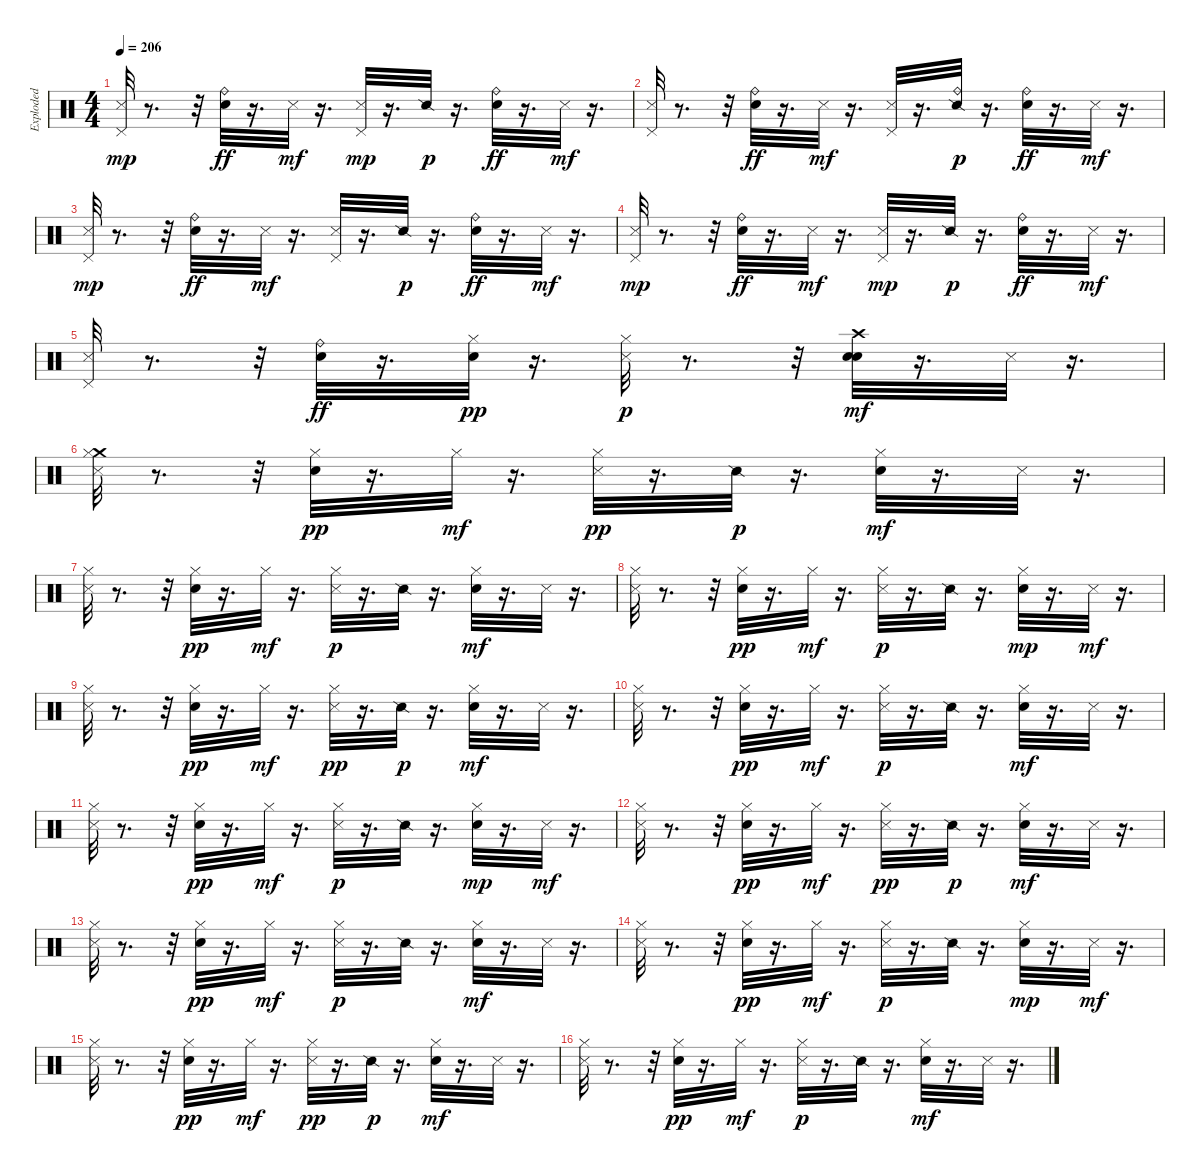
\track ("Exploded" "Exploded") {instrument percussion}
\staff {score}
\articulation defaults
\ts (4 4)
\tempo 206
\clef neutral
\ks c
("Metronome (hit)" "Pedal Hi-Hat (hit)").32{dy mp} r.8{d} r.32 ("Electric Snare (hit)" "Ride (bell)").32{dy ff} r.16{d} "Metronome (hit)".32{dy mf} r.16{d} ("Metronome (hit)" "Pedal Hi-Hat (hit)").32{dy mp} r.16{d} "Snare (side stick) 2".32{dy p} r.16{d} ("Electric Snare (hit)" "Ride (bell)").32{dy ff} r.16{d} "Metronome (hit)".32{dy mf} r.16{d} |
("Metronome (hit)" "Pedal Hi-Hat (hit)").32 r.8{d} r.32 ("Electric Snare (hit)" "Ride (bell)").32{dy ff} r.16{d} "Metronome (hit)".32{dy mf} r.16{d} ("Metronome (hit)" "Pedal Hi-Hat (hit)").32 r.16{d} ("Snare (side stick) 2" "Ride (bell)").32{dy p} r.16{d} ("Electric Snare (hit)" "Ride (bell)").32{dy ff} r.16{d} "Metronome (hit)".32{dy mf} r.16{d} |
("Metronome (hit)" "Pedal Hi-Hat (hit)").32{dy mp} r.8{d} r.32 ("Electric Snare (hit)" "Ride (bell)").32{dy ff} r.16{d} "Metronome (hit)".32{dy mf} r.16{d} ("Metronome (hit)" "Pedal Hi-Hat (hit)").32 r.16{d} "Snare (side stick) 2".32{dy p} r.16{d} ("Electric Snare (hit)" "Ride (bell)").32{dy ff} r.16{d} "Metronome (hit)".32{dy mf} r.16{d} |
("Metronome (hit)" "Pedal Hi-Hat (hit)").32{dy mp} r.8{d} r.32 ("Electric Snare (hit)" "Ride (bell)").32{dy ff} r.16{d} "Metronome (hit)".32{dy mf} r.16{d} ("Metronome (hit)" "Pedal Hi-Hat (hit)").32{dy mp} r.16{d} "Snare (side stick) 2".32{dy p} r.16{d} ("Electric Snare (hit)" "Ride (bell)").32{dy ff} r.16{d} "Metronome (hit)".32{dy mf} r.16{d} |
("Metronome (hit)" "Pedal Hi-Hat (hit)").32 r.8{d} r.32 ("Electric Snare (hit)" "Ride (bell)").32{dy ff} r.16{d} ("Electric Snare (hit)" "Hi-Hat (closed)").32{dy pp} r.16{d} ("Metronome (hit)" "Hi-Hat (closed)").32{dy p} r.8{d} r.32 ("Metronome (bell)" "Electric Snare (hit)" "Crash high (hit)").32{dy mf} r.16{d} "Metronome (hit)".32 r.16{d} |
("Crash medium (hit)" "Metronome (hit)" "Hi-Hat (closed)").32 r.8{d} r.32 ("Electric Snare (hit)" "Hi-Hat (closed)").32{dy pp} r.16{d} "Hi-Hat (closed)".32{dy mf} r.16{d} ("Metronome (hit)" "Hi-Hat (closed)").32{dy pp} r.16{d} "Snare (side stick) 2".32{dy p} r.16{d} ("Electric Snare (hit)" "Hi-Hat (closed)").32{dy mf} r.16{d} "Metronome (hit)".32 r.16{d} |
("Metronome (hit)" "Hi-Hat (closed)").32 r.8{d} r.32 ("Electric Snare (hit)" "Hi-Hat (closed)").32{dy pp} r.16{d} "Hi-Hat (closed)".32{dy mf} r.16{d} ("Metronome (hit)" "Hi-Hat (closed)").32{dy p} r.16{d} "Snare (side stick) 2".32 r.16{d} ("Electric Snare (hit)" "Hi-Hat (closed)").32{dy mf} r.16{d} "Metronome (hit)".32 r.16{d} |
("Metronome (hit)" "Hi-Hat (closed)").32 r.8{d} r.32 ("Electric Snare (hit)" "Hi-Hat (closed)").32{dy pp} r.16{d} "Hi-Hat (closed)".32{dy mf} r.16{d} ("Metronome (hit)" "Hi-Hat (closed)").32{dy p} r.16{d} "Snare (side stick) 2".32 r.16{d} ("Electric Snare (hit)" "Hi-Hat (closed)").32{dy mp} r.16{d} "Metronome (hit)".32{dy mf} r.16{d} |
("Metronome (hit)" "Hi-Hat (closed)").32 r.8{d} r.32 ("Electric Snare (hit)" "Hi-Hat (closed)").32{dy pp} r.16{d} "Hi-Hat (closed)".32{dy mf} r.16{d} ("Metronome (hit)" "Hi-Hat (closed)").32{dy pp} r.16{d} "Snare (side stick) 2".32{dy p} r.16{d} ("Electric Snare (hit)" "Hi-Hat (closed)").32{dy mf} r.16{d} "Metronome (hit)".32 r.16{d} |
("Metronome (hit)" "Hi-Hat (closed)").32 r.8{d} r.32 ("Electric Snare (hit)" "Hi-Hat (closed)").32{dy pp} r.16{d} "Hi-Hat (closed)".32{dy mf} r.16{d} ("Metronome (hit)" "Hi-Hat (closed)").32{dy p} r.16{d} "Snare (side stick) 2".32 r.16{d} ("Electric Snare (hit)" "Hi-Hat (closed)").32{dy mf} r.16{d} "Metronome (hit)".32 r.16{d} |
("Metronome (hit)" "Hi-Hat (closed)").32 r.8{d} r.32 ("Electric Snare (hit)" "Hi-Hat (closed)").32{dy pp} r.16{d} "Hi-Hat (closed)".32{dy mf} r.16{d} ("Metronome (hit)" "Hi-Hat (closed)").32{dy p} r.16{d} "Snare (side stick) 2".32 r.16{d} ("Electric Snare (hit)" "Hi-Hat (closed)").32{dy mp} r.16{d} "Metronome (hit)".32{dy mf} r.16{d} |
("Metronome (hit)" "Hi-Hat (closed)").32 r.8{d} r.32 ("Electric Snare (hit)" "Hi-Hat (closed)").32{dy pp} r.16{d} "Hi-Hat (closed)".32{dy mf} r.16{d} ("Metronome (hit)" "Hi-Hat (closed)").32{dy pp} r.16{d} "Snare (side stick) 2".32{dy p} r.16{d} ("Electric Snare (hit)" "Hi-Hat (closed)").32{dy mf} r.16{d} "Metronome (hit)".32 r.16{d} |
("Metronome (hit)" "Hi-Hat (closed)").32 r.8{d} r.32 ("Electric Snare (hit)" "Hi-Hat (closed)").32{dy pp} r.16{d} "Hi-Hat (closed)".32{dy mf} r.16{d} ("Metronome (hit)" "Hi-Hat (closed)").32{dy p} r.16{d} "Snare (side stick) 2".32 r.16{d} ("Electric Snare (hit)" "Hi-Hat (closed)").32{dy mf} r.16{d} "Metronome (hit)".32 r.16{d} |
("Metronome (hit)" "Hi-Hat (closed)").32 r.8{d} r.32 ("Electric Snare (hit)" "Hi-Hat (closed)").32{dy pp} r.16{d} "Hi-Hat (closed)".32{dy mf} r.16{d} ("Metronome (hit)" "Hi-Hat (closed)").32{dy p} r.16{d} "Snare (side stick) 2".32 r.16{d} ("Electric Snare (hit)" "Hi-Hat (closed)").32{dy mp} r.16{d} "Metronome (hit)".32{dy mf} r.16{d} |
("Metronome (hit)" "Hi-Hat (closed)").32 r.8{d} r.32 ("Electric Snare (hit)" "Hi-Hat (closed)").32{dy pp} r.16{d} "Hi-Hat (closed)".32{dy mf} r.16{d} ("Metronome (hit)" "Hi-Hat (closed)").32{dy pp} r.16{d} "Snare (side stick) 2".32{dy p} r.16{d} ("Electric Snare (hit)" "Hi-Hat (closed)").32{dy mf} r.16{d} "Metronome (hit)".32 r.16{d} |
("Metronome (hit)" "Hi-Hat (closed)").32 r.8{d} r.32 ("Electric Snare (hit)" "Hi-Hat (closed)").32{dy pp} r.16{d} "Hi-Hat (closed)".32{dy mf} r.16{d} ("Metronome (hit)" "Hi-Hat (closed)").32{dy p} r.16{d} "Snare (side stick) 2".32 r.16{d} ("Electric Snare (hit)" "Hi-Hat (closed)").32{dy mf} r.16{d} "Metronome (hit)".32 r.16{d}
